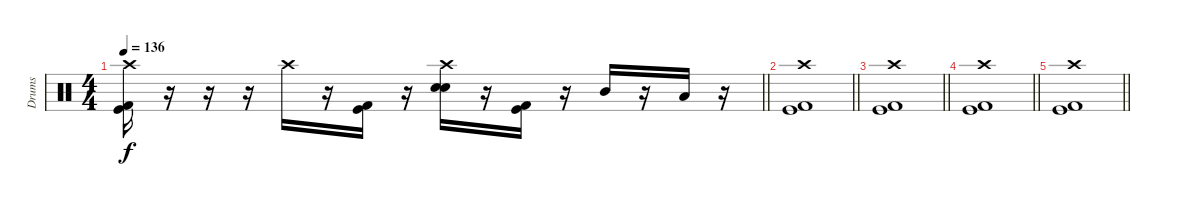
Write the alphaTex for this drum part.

\track ("Drums" "Drums") {instrument percussion}
\staff {score}
\articulation defaults
\ts (4 4)
\tempo 136
\clef neutral
\barLineRight lightlight
\ks c
("Crash high (hit)" "Kick (hit)" "Kick (hit) 2").16{dy f} r.16 r.16 r.16 "Crash high (hit)".16 r.16 ("Kick (hit)" "Kick (hit) 2").16 r.16 ("Crash high (hit)" "Electric Snare (hit)" "Snare (hit) 2").16 r.16 ("Kick (hit)" "Kick (hit) 2").16 r.16 "Mid Tom (hit)".16 r.16 "Low Tom (hit)".16 r.16 |
\section ("" "")
\barLineRight lightlight
("Crash high (hit)" "Kick (hit)" "Kick (hit) 2").1 |
\section ("" "")
\barLineRight lightlight
("Crash high (hit)" "Kick (hit)" "Kick (hit) 2").1 |
\section ("" "")
\barLineRight lightlight
("Crash high (hit)" "Kick (hit)" "Kick (hit) 2").1 |
\section ("" "")
\barLineRight lightlight
("Crash high (hit)" "Kick (hit)" "Kick (hit) 2").1
